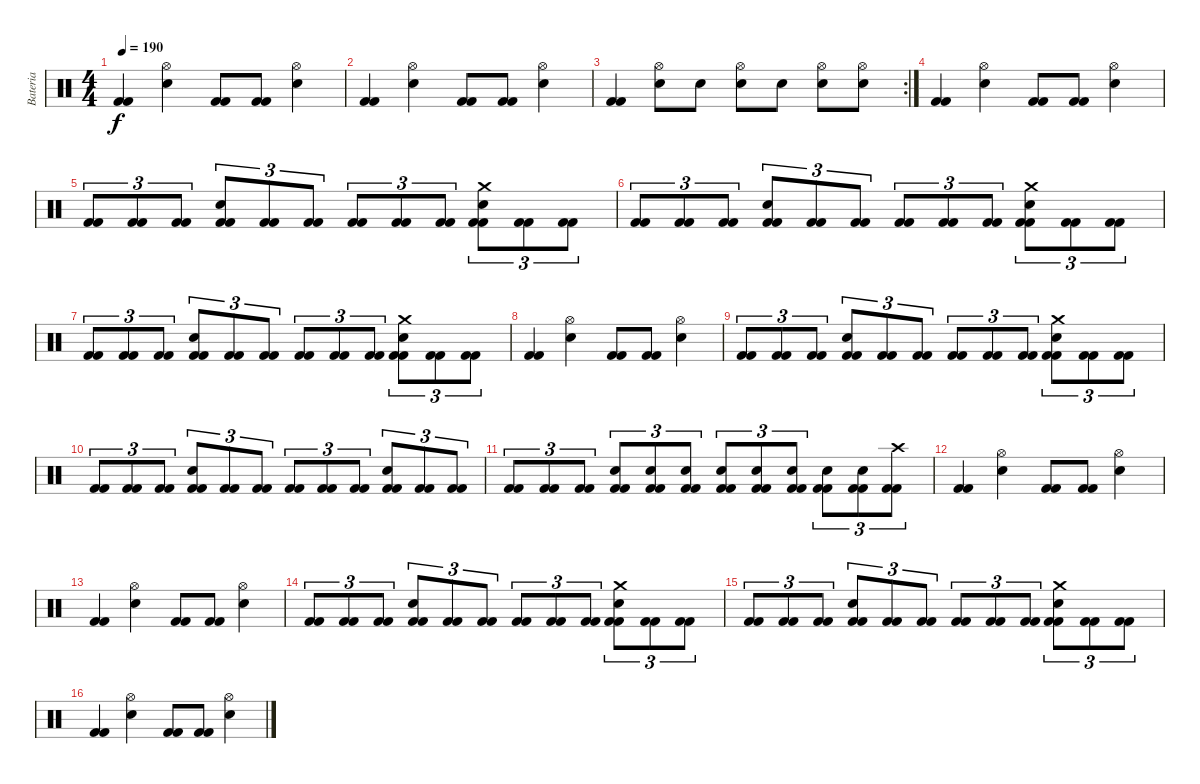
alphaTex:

\track ("Bateria" "Bateria") {instrument percussion}
\staff {score}
\articulation defaults
\ts (4 4)
\tempo 190
\clef neutral
\ks c
("Kick (hit) 2" "Kick (hit) 2").4{dy f} ("Hi-Hat (open)" "Snare (hit) 2").4 ("Kick (hit) 2" "Kick (hit) 2").8 ("Kick (hit) 2" "Kick (hit) 2").8 ("Hi-Hat (open)" "Snare (hit) 2").4 |
("Kick (hit) 2" "Kick (hit) 2").4 ("Hi-Hat (open)" "Snare (hit) 2").4 ("Kick (hit) 2" "Kick (hit) 2").8 ("Kick (hit) 2" "Kick (hit) 2").8 ("Hi-Hat (open)" "Snare (hit) 2").4 |
\rc 2
("Kick (hit) 2" "Kick (hit) 2").4 ("Hi-Hat (open)" "Snare (hit) 2").8 "Snare (hit) 2".8 ("Hi-Hat (open)" "Snare (hit) 2").8 "Snare (hit) 2".8 ("Hi-Hat (open)" "Snare (hit) 2").8 ("Hi-Hat (open)" "Snare (hit) 2").8 |
("Kick (hit) 2" "Kick (hit) 2").4 ("Hi-Hat (open)" "Snare (hit) 2").4 ("Kick (hit) 2" "Kick (hit) 2").8 ("Kick (hit) 2" "Kick (hit) 2").8 ("Hi-Hat (open)" "Snare (hit) 2").4 |
("Kick (hit) 2" "Kick (hit) 2").8{tu (3 2)} ("Kick (hit) 2" "Kick (hit) 2").8{tu (3 2)} ("Kick (hit) 2" "Kick (hit) 2").8{tu (3 2)} ("Kick (hit) 2" "Kick (hit) 2" "Snare (hit) 2").8{tu (3 2)} ("Kick (hit) 2" "Kick (hit) 2").8{tu (3 2)} ("Kick (hit) 2" "Kick (hit) 2").8{tu (3 2)} ("Kick (hit) 2" "Kick (hit) 2").8{tu (3 2)} ("Kick (hit) 2" "Kick (hit) 2").8{tu (3 2)} ("Kick (hit) 2" "Kick (hit) 2").8{tu (3 2)} ("Kick (hit) 2" "Kick (hit) 2" "Snare (hit) 2" "Crash medium (hit)").8{tu (3 2)} ("Kick (hit) 2" "Kick (hit) 2").8{tu (3 2)} ("Kick (hit) 2" "Kick (hit) 2").8{tu (3 2)} |
("Kick (hit) 2" "Kick (hit) 2").8{tu (3 2)} ("Kick (hit) 2" "Kick (hit) 2").8{tu (3 2)} ("Kick (hit) 2" "Kick (hit) 2").8{tu (3 2)} ("Kick (hit) 2" "Kick (hit) 2" "Snare (hit) 2").8{tu (3 2)} ("Kick (hit) 2" "Kick (hit) 2").8{tu (3 2)} ("Kick (hit) 2" "Kick (hit) 2").8{tu (3 2)} ("Kick (hit) 2" "Kick (hit) 2").8{tu (3 2)} ("Kick (hit) 2" "Kick (hit) 2").8{tu (3 2)} ("Kick (hit) 2" "Kick (hit) 2").8{tu (3 2)} ("Kick (hit) 2" "Kick (hit) 2" "Snare (hit) 2" "Crash medium (hit)").8{tu (3 2)} ("Kick (hit) 2" "Kick (hit) 2").8{tu (3 2)} ("Kick (hit) 2" "Kick (hit) 2").8{tu (3 2)} |
("Kick (hit) 2" "Kick (hit) 2").8{tu (3 2)} ("Kick (hit) 2" "Kick (hit) 2").8{tu (3 2)} ("Kick (hit) 2" "Kick (hit) 2").8{tu (3 2)} ("Kick (hit) 2" "Kick (hit) 2" "Snare (hit) 2").8{tu (3 2)} ("Kick (hit) 2" "Kick (hit) 2").8{tu (3 2)} ("Kick (hit) 2" "Kick (hit) 2").8{tu (3 2)} ("Kick (hit) 2" "Kick (hit) 2").8{tu (3 2)} ("Kick (hit) 2" "Kick (hit) 2").8{tu (3 2)} ("Kick (hit) 2" "Kick (hit) 2").8{tu (3 2)} ("Kick (hit) 2" "Kick (hit) 2" "Snare (hit) 2" "Crash medium (hit)").8{tu (3 2)} ("Kick (hit) 2" "Kick (hit) 2").8{tu (3 2)} ("Kick (hit) 2" "Kick (hit) 2").8{tu (3 2)} |
("Kick (hit) 2" "Kick (hit) 2").4 ("Hi-Hat (open)" "Snare (hit) 2").4 ("Kick (hit) 2" "Kick (hit) 2").8 ("Kick (hit) 2" "Kick (hit) 2").8 ("Hi-Hat (open)" "Snare (hit) 2").4 |
("Kick (hit) 2" "Kick (hit) 2").8{tu (3 2)} ("Kick (hit) 2" "Kick (hit) 2").8{tu (3 2)} ("Kick (hit) 2" "Kick (hit) 2").8{tu (3 2)} ("Kick (hit) 2" "Kick (hit) 2" "Snare (hit) 2").8{tu (3 2)} ("Kick (hit) 2" "Kick (hit) 2").8{tu (3 2)} ("Kick (hit) 2" "Kick (hit) 2").8{tu (3 2)} ("Kick (hit) 2" "Kick (hit) 2").8{tu (3 2)} ("Kick (hit) 2" "Kick (hit) 2").8{tu (3 2)} ("Kick (hit) 2" "Kick (hit) 2").8{tu (3 2)} ("Kick (hit) 2" "Kick (hit) 2" "Snare (hit) 2" "Crash medium (hit)").8{tu (3 2)} ("Kick (hit) 2" "Kick (hit) 2").8{tu (3 2)} ("Kick (hit) 2" "Kick (hit) 2").8{tu (3 2)} |
("Kick (hit) 2" "Kick (hit) 2").8{tu (3 2)} ("Kick (hit) 2" "Kick (hit) 2").8{tu (3 2)} ("Kick (hit) 2" "Kick (hit) 2").8{tu (3 2)} ("Kick (hit) 2" "Kick (hit) 2" "Snare (hit) 2").8{tu (3 2)} ("Kick (hit) 2" "Kick (hit) 2").8{tu (3 2)} ("Kick (hit) 2" "Kick (hit) 2").8{tu (3 2)} ("Kick (hit) 2" "Kick (hit) 2").8{tu (3 2)} ("Kick (hit) 2" "Kick (hit) 2").8{tu (3 2)} ("Kick (hit) 2" "Kick (hit) 2").8{tu (3 2)} ("Kick (hit) 2" "Kick (hit) 2" "Snare (hit) 2").8{tu (3 2)} ("Kick (hit) 2" "Kick (hit) 2").8{tu (3 2)} ("Kick (hit) 2" "Kick (hit) 2").8{tu (3 2)} |
("Kick (hit) 2" "Kick (hit) 2").8{tu (3 2)} ("Kick (hit) 2" "Kick (hit) 2").8{tu (3 2)} ("Kick (hit) 2" "Kick (hit) 2").8{tu (3 2)} ("Kick (hit) 2" "Kick (hit) 2" "Snare (hit) 2").8{tu (3 2)} ("Kick (hit) 2" "Kick (hit) 2" "Snare (hit) 2").8{tu (3 2)} ("Kick (hit) 2" "Kick (hit) 2" "Snare (hit) 2").8{tu (3 2)} ("Kick (hit) 2" "Kick (hit) 2" "Snare (hit) 2").8{tu (3 2)} ("Kick (hit) 2" "Kick (hit) 2" "Snare (hit) 2").8{tu (3 2)} ("Kick (hit) 2" "Kick (hit) 2" "Snare (hit) 2").8{tu (3 2)} ("Kick (hit) 2" "Kick (hit) 2" "Snare (hit) 2").8{tu (3 2)} ("Kick (hit) 2" "Kick (hit) 2" "Snare (hit) 2").8{tu (3 2)} ("Kick (hit) 2" "Kick (hit) 2" "Crash high (hit)").8{tu (3 2)} |
("Kick (hit) 2" "Kick (hit) 2").4 ("Hi-Hat (open)" "Snare (hit) 2").4 ("Kick (hit) 2" "Kick (hit) 2").8 ("Kick (hit) 2" "Kick (hit) 2").8 ("Hi-Hat (open)" "Snare (hit) 2").4 |
("Kick (hit) 2" "Kick (hit) 2").4 ("Hi-Hat (open)" "Snare (hit) 2").4 ("Kick (hit) 2" "Kick (hit) 2").8 ("Kick (hit) 2" "Kick (hit) 2").8 ("Hi-Hat (open)" "Snare (hit) 2").4 |
("Kick (hit) 2" "Kick (hit) 2").8{tu (3 2)} ("Kick (hit) 2" "Kick (hit) 2").8{tu (3 2)} ("Kick (hit) 2" "Kick (hit) 2").8{tu (3 2)} ("Kick (hit) 2" "Kick (hit) 2" "Snare (hit) 2").8{tu (3 2)} ("Kick (hit) 2" "Kick (hit) 2").8{tu (3 2)} ("Kick (hit) 2" "Kick (hit) 2").8{tu (3 2)} ("Kick (hit) 2" "Kick (hit) 2").8{tu (3 2)} ("Kick (hit) 2" "Kick (hit) 2").8{tu (3 2)} ("Kick (hit) 2" "Kick (hit) 2").8{tu (3 2)} ("Kick (hit) 2" "Kick (hit) 2" "Snare (hit) 2" "Crash medium (hit)").8{tu (3 2)} ("Kick (hit) 2" "Kick (hit) 2").8{tu (3 2)} ("Kick (hit) 2" "Kick (hit) 2").8{tu (3 2)} |
("Kick (hit) 2" "Kick (hit) 2").8{tu (3 2)} ("Kick (hit) 2" "Kick (hit) 2").8{tu (3 2)} ("Kick (hit) 2" "Kick (hit) 2").8{tu (3 2)} ("Kick (hit) 2" "Kick (hit) 2" "Snare (hit) 2").8{tu (3 2)} ("Kick (hit) 2" "Kick (hit) 2").8{tu (3 2)} ("Kick (hit) 2" "Kick (hit) 2").8{tu (3 2)} ("Kick (hit) 2" "Kick (hit) 2").8{tu (3 2)} ("Kick (hit) 2" "Kick (hit) 2").8{tu (3 2)} ("Kick (hit) 2" "Kick (hit) 2").8{tu (3 2)} ("Kick (hit) 2" "Kick (hit) 2" "Snare (hit) 2" "Crash medium (hit)").8{tu (3 2)} ("Kick (hit) 2" "Kick (hit) 2").8{tu (3 2)} ("Kick (hit) 2" "Kick (hit) 2").8{tu (3 2)} |
("Kick (hit) 2" "Kick (hit) 2").4 ("Hi-Hat (open)" "Snare (hit) 2").4 ("Kick (hit) 2" "Kick (hit) 2").8 ("Kick (hit) 2" "Kick (hit) 2").8 ("Hi-Hat (open)" "Snare (hit) 2").4
